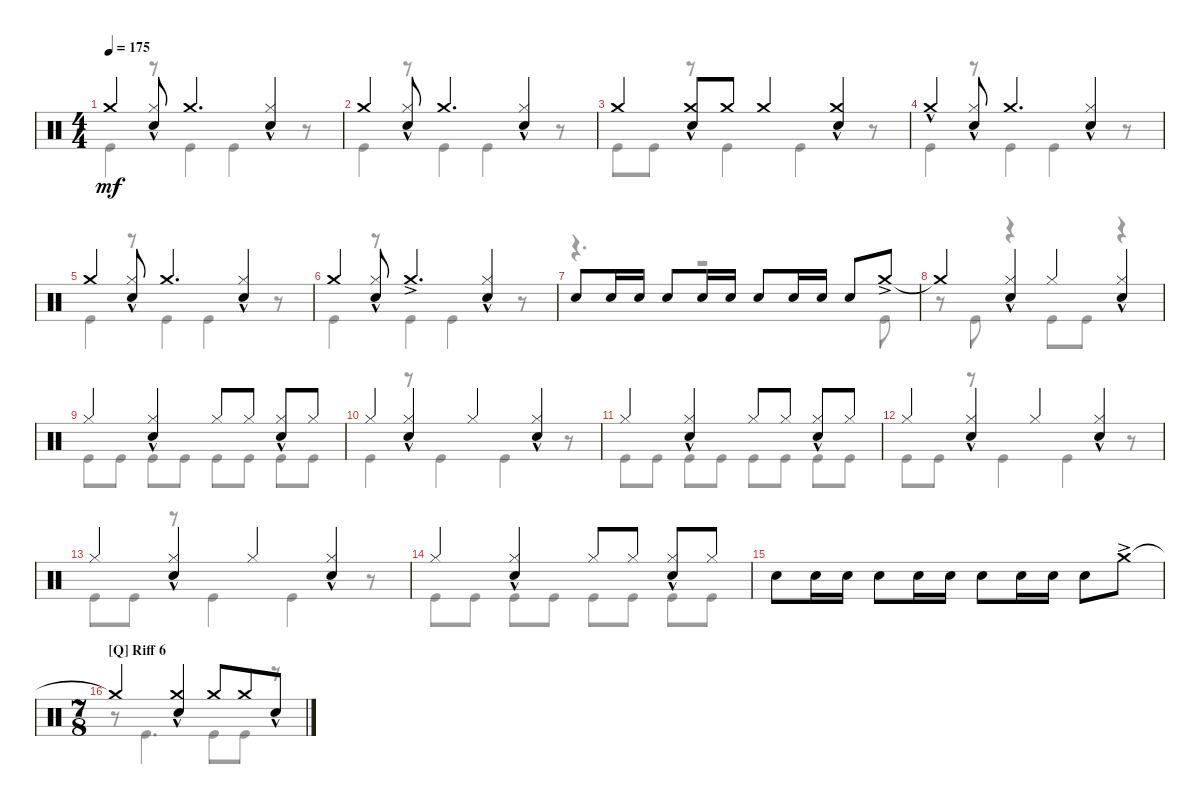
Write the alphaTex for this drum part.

\defaultSystemsLayout 4
\bracketExtendMode groupsimilarinstruments
\singleTrackTrackNamePolicy hidden
\multiTrackTrackNamePolicy hidden
\firstSystemTrackNameOrientation horizontal
\otherSystemsTrackNameOrientation horizontal
\track ("Nicko McBrain" "Drums") {instrument percussion}
\staff {score}
\articulation defaults
\voice
\ts (4 4)
\tempo 175
\clef neutral
\scale
1.02648
\ks c "Crash medium (hit)".4{dy mf}
("Snare (hit) 2"{hac} "Hi-Hat (closed)").8 "Crash medium (hit)".4{d} ("Snare (hit) 2"{hac} "Hi-Hat (closed)").4 |
\scale
0.973518 "Crash medium (hit)".4 ("Snare (hit) 2"{hac} "Hi-Hat (closed)").8 "Crash medium (hit)".4{d} ("Snare (hit) 2"{hac} "Hi-Hat (closed)").4 |
\scale
1.02648 "Crash medium (hit)".4 ("Crash medium (hit)" "Snare (hit) 2"{hac}).8 "Crash medium (hit)".8 "Crash medium (hit)".4 ("Crash medium (hit)" "Snare (hit) 2"{hac}).4 |
\scale
0.973518 "Crash medium (hit)"{hac}.4 ("Snare (hit) 2"{hac} "Hi-Hat (closed)").8 "Crash medium (hit)".4{d} ("Snare (hit) 2"{hac} "Hi-Hat (closed)").4 |
\scale
1.02648 "Crash medium (hit)".4 ("Snare (hit) 2"{hac} "Hi-Hat (closed)").8 "Crash medium (hit)".4{d} ("Snare (hit) 2"{hac} "Hi-Hat (closed)").4 |
\scale
0.973518 "Crash medium (hit)".4 ("Snare (hit) 2"{hac} "Hi-Hat (closed)").8 "Crash medium (hit)"{ac}.4{d} ("Snare (hit) 2"{hac} "Hi-Hat (closed)").4 |
\scale
1.02648 "Snare (hit) 2".8 "Snare (hit) 2".16 "Snare (hit) 2".16 "Snare (hit) 2".8 "Snare (hit) 2".16 "Snare (hit) 2".16 "Snare (hit) 2".8 "Snare (hit) 2".16 "Snare (hit) 2".16 "Snare (hit) 2".8 "Crash medium (hit)"{ac}.8 |
\scale
0.973518 "Crash medium (hit)"{t}.4 ("Hi-Hat (closed)" "Snare (hit) 2"{hac}).4 "Hi-Hat (closed)".4 ("Hi-Hat (closed)" "Snare (hit) 2"{hac}).4 |
\scale
1.02648 "Hi-Hat (closed)".4 ("Hi-Hat (closed)" "Snare (hit) 2"{hac}).4 "Hi-Hat (closed)".8 "Hi-Hat (closed)".8 ("Hi-Hat (closed)" "Snare (hit) 2"{hac}).8 "Hi-Hat (closed)".8 |
\scale
0.973518 "Hi-Hat (closed)".4 ("Hi-Hat (closed)" "Snare (hit) 2"{hac}).4 "Hi-Hat (closed)".4 ("Hi-Hat (closed)" "Snare (hit) 2"{hac}).4 |
\scale
1.02648 "Hi-Hat (closed)".4 ("Hi-Hat (closed)" "Snare (hit) 2"{hac}).4 "Hi-Hat (closed)".8 "Hi-Hat (closed)".8 ("Hi-Hat (closed)" "Snare (hit) 2"{hac}).8 "Hi-Hat (closed)".8 |
\scale
0.973518 "Hi-Hat (closed)".4 ("Hi-Hat (closed)" "Snare (hit) 2"{hac}).4 "Hi-Hat (closed)".4 ("Hi-Hat (closed)" "Snare (hit) 2"{hac}).4 |
\scale
1.02648 "Hi-Hat (closed)".4 ("Hi-Hat (closed)" "Snare (hit) 2"{hac}).4 "Hi-Hat (closed)".4 ("Hi-Hat (closed)" "Snare (hit) 2"{hac}).4 |
\scale
0.973518 "Hi-Hat (closed)".4 ("Hi-Hat (closed)" "Snare (hit) 2"{hac}).4 "Hi-Hat (closed)".8 "Hi-Hat (closed)".8 ("Hi-Hat (closed)" "Snare (hit) 2"{hac}).8 "Hi-Hat (closed)".8 |
\scale
1.02648 "Snare (hit) 2".8 "Snare (hit) 2".16 "Snare (hit) 2".16 "Snare (hit) 2".8 "Snare (hit) 2".16 "Snare (hit) 2".16 "Snare (hit) 2".8 "Snare (hit) 2".16 "Snare (hit) 2".16 "Snare (hit) 2".8 "Crash medium (hit)"{ac}.8 |
\ts (7 8)
\section ("Q" "Riff 6")
\scale
0.973518 "Crash medium (hit)"{t}.4 ("Crash medium (hit)" "Snare (hit) 2"{hac}).4 "Crash medium (hit)".8 "Crash medium (hit)".8 "Snare (hit) 2"{hac}.8
\voice
\clef neutral
\ottava regular
\simile none
\scale
1.02648
\ks c "Kick (hit)".4{dy mf}
r.8 "Kick (hit)".4 "Kick (hit)".4 r.8 |
\scale
0.973518 "Kick (hit)".4 r.8 "Kick (hit)".4 "Kick (hit)".4 r.8 |
\scale
1.02648 "Kick (hit)".8 "Kick (hit)".8 r.8 "Kick (hit)".4 "Kick (hit)".4 r.8 |
\scale
0.973518 "Kick (hit)".4 r.8 "Kick (hit)".4 "Kick (hit)".4 r.8 |
\scale
1.02648 "Kick (hit)".4 r.8 "Kick (hit)".4 "Kick (hit)".4 r.8 |
\scale
0.973518 "Kick (hit)".4 r.8 "Kick (hit)".4 "Kick (hit)".4 r.8 |
\scale
1.02648 r.4{d} r.2 "Kick (hit)".8 |
\scale
0.973518 r.8 "Kick (hit)".8 r.4 "Kick (hit)".8 "Kick (hit)".8 r.4 |
\scale
1.02648 "Kick (hit)".8 "Kick (hit)".8 "Kick (hit)".8 "Kick (hit)".8 "Kick (hit)".8 "Kick (hit)".8 "Kick (hit)".8 "Kick (hit)".8 |
\scale
0.973518 "Kick (hit)".4 r.8 "Kick (hit)".4 "Kick (hit)".4 r.8 |
\scale
1.02648 "Kick (hit)".8 "Kick (hit)".8 "Kick (hit)".8 "Kick (hit)".8 "Kick (hit)".8 "Kick (hit)".8 "Kick (hit)".8 "Kick (hit)".8 |
\scale
0.973518 "Kick (hit)".8 "Kick (hit)".8 r.8 "Kick (hit)".4 "Kick (hit)".4 r.8 |
\scale
1.02648 "Kick (hit)".8 "Kick (hit)".8 r.8 "Kick (hit)".4 "Kick (hit)".4 r.8 |
\scale
0.973518 "Kick (hit)".8 "Kick (hit)".8 "Kick (hit)".8 "Kick (hit)".8 "Kick (hit)".8 "Kick (hit)".8 "Kick (hit)".8 "Kick (hit)".8 |
\scale
1.02648 |
\scale
0.973518 r.8 "Kick (hit)".4{d} "Kick (hit)".8 "Kick (hit)".8 r.8
